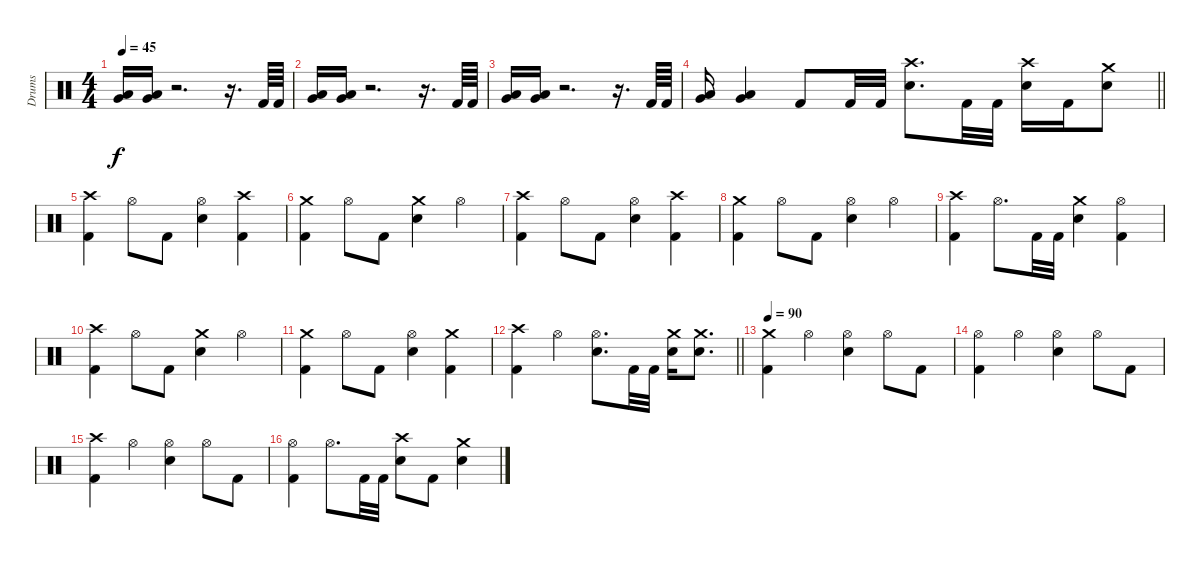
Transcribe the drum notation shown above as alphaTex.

\track ("Drums" "Drums") {instrument percussion}
\staff {score}
\articulation defaults
\ts (4 4)
\tempo 45
\clef neutral
\ks c
("Very Low Tom (hit)" "Low Floor Tom (hit)").16{dy f} ("Very Low Tom (hit)" "Low Floor Tom (hit)").16 r.2{d} r.16{d} "Kick (hit) 2".64 "Kick (hit) 2".64 |
("Low Tom (hit)" "Very Low Tom (hit)").16 ("Low Tom (hit)" "Very Low Tom (hit)").16 r.2{d} r.16{d} "Kick (hit) 2".64 "Kick (hit) 2".64 |
("Low Tom (hit)" "Very Low Tom (hit)").16 ("Low Tom (hit)" "Very Low Tom (hit)").16 r.2{d} r.16{d} "Kick (hit) 2".64 "Kick (hit) 2".64 |
\barLineRight lightlight
("Low Tom (hit)" "Very Low Tom (hit)").16 ("Low Tom (hit)" "Very Low Tom (hit)").4 "Kick (hit) 2".8 "Kick (hit) 2".32 "Kick (hit) 2".32 ("Crash high (hit)" "Snare (hit) 2").8{d} "Kick (hit) 2".32 "Kick (hit) 2".32 ("Crash high (hit)" "Snare (hit) 2").16 "Kick (hit) 2".16 ("Crash medium (hit)" "Snare (hit) 2").8 |
("Crash high (hit)" "Kick (hit) 2").4 "Hi-Hat (open)".8 "Kick (hit) 2".8 ("Hi-Hat (open)" "Snare (hit) 2").4 ("Crash high (hit)" "Kick (hit) 2").4 |
("Crash medium (hit)" "Kick (hit) 2").4 "Hi-Hat (open)".8 "Kick (hit) 2".8 ("Crash medium (hit)" "Snare (hit) 2").4 "Hi-Hat (open)".4 |
("Crash high (hit)" "Kick (hit) 2").4 "Hi-Hat (open)".8 "Kick (hit) 2".8 ("Hi-Hat (open)" "Snare (hit) 2").4 ("Crash high (hit)" "Kick (hit) 2").4 |
("Crash medium (hit)" "Kick (hit) 2").4 "Hi-Hat (open)".8 "Kick (hit) 2".8 ("Hi-Hat (open)" "Snare (hit) 2").4 "Hi-Hat (open)".4 |
("Crash high (hit)" "Kick (hit) 2").4 "Hi-Hat (open)".8{d} "Kick (hit) 2".32 "Kick (hit) 2".32 ("Crash medium (hit)" "Snare (hit) 2").4 ("Hi-Hat (open)" "Kick (hit) 2").4 |
("Crash high (hit)" "Kick (hit) 2").4 "Hi-Hat (open)".8 "Kick (hit) 2".8 ("Crash medium (hit)" "Snare (hit) 2").4 "Hi-Hat (open)".4 |
("Crash medium (hit)" "Kick (hit) 2").4 "Hi-Hat (open)".8 "Kick (hit) 2".8 ("Hi-Hat (open)" "Snare (hit) 2").4 ("Crash medium (hit)" "Kick (hit) 2").4 |
\barLineRight lightlight
("Crash high (hit)" "Kick (hit) 2").4 "Hi-Hat (open)".4 ("Hi-Hat (open)" "Snare (hit) 2").8{d} "Kick (hit) 2".32 "Kick (hit) 2".32 ("Crash medium (hit)" "Snare (hit) 2").16 ("Crash medium (hit)" "Snare (hit) 2").8{d} |
\tempo 90
("Crash medium (hit)" "Kick (hit) 2").4 "Hi-Hat (open)".4 ("Hi-Hat (open)" "Snare (hit) 2").4 "Hi-Hat (open)".8 "Kick (hit) 2".8 |
("Hi-Hat (open)" "Kick (hit) 2").4 "Hi-Hat (open)".4 ("Hi-Hat (open)" "Snare (hit) 2").4 "Hi-Hat (open)".8 "Kick (hit) 2".8 |
("Crash high (hit)" "Kick (hit) 2").4 "Hi-Hat (open)".4 ("Hi-Hat (open)" "Snare (hit) 2").4 "Hi-Hat (open)".8 "Kick (hit) 2".8 |
("Hi-Hat (open)" "Kick (hit) 2").4 "Hi-Hat (open)".8{d} "Kick (hit) 2".32 "Kick (hit) 2".32 ("Crash high (hit)" "Snare (hit) 2").8 "Kick (hit) 2".8 ("Crash medium (hit)" "Snare (hit) 2").4
